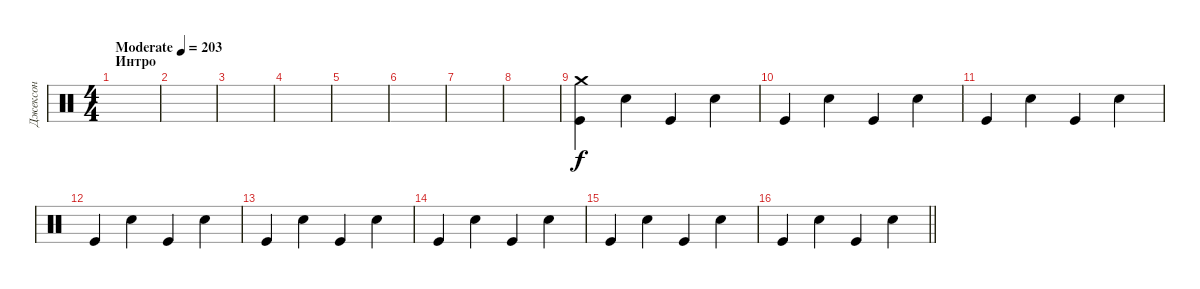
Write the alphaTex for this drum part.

\track ("Джексон" "Джексон") {instrument percussion}
\staff {score}
\articulation defaults
\ts (4 4)
\section ("" "Интро")
\tempo (203 "Moderate")
\clef neutral
\ks c
|
|
|
|
|
|
|
|
("Crash medium (hit)" "Kick (hit)").4 "Snare (hit) 2".4 "Kick (hit)".4 "Snare (hit) 2".4 |
"Kick (hit)".4 "Snare (hit) 2".4 "Kick (hit)".4 "Snare (hit) 2".4 |
"Kick (hit)".4 "Snare (hit) 2".4 "Kick (hit)".4 "Snare (hit) 2".4 |
"Kick (hit)".4 "Snare (hit) 2".4 "Kick (hit)".4 "Snare (hit) 2".4 |
"Kick (hit)".4 "Snare (hit) 2".4 "Kick (hit)".4 "Snare (hit) 2".4 |
"Kick (hit)".4 "Snare (hit) 2".4 "Kick (hit)".4 "Snare (hit) 2".4 |
"Kick (hit)".4 "Snare (hit) 2".4 "Kick (hit)".4 "Snare (hit) 2".4 |
\barLineRight lightlight "Kick (hit)".4 "Snare (hit) 2".4 "Kick (hit)".4 "Snare (hit) 2".4
